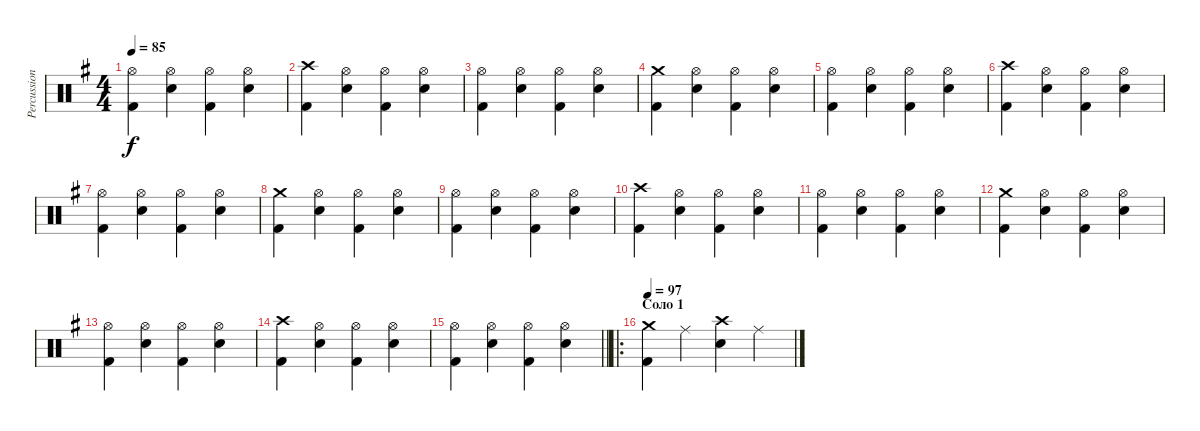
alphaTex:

\track ("Percussion" "Percussion") {instrument percussion}
\staff {score}
\articulation defaults
\ts (4 4)
\tempo 85
\clef neutral
\ks eminor
("Hi-Hat (open)" "Kick (hit) 2").4{dy f} ("Hi-Hat (open)" "Snare (hit) 2").4 ("Hi-Hat (open)" "Kick (hit) 2").4 ("Hi-Hat (open)" "Snare (hit) 2").4 |
("Crash high (hit)" "Kick (hit) 2").4 ("Hi-Hat (open)" "Snare (hit) 2").4 ("Hi-Hat (open)" "Kick (hit) 2").4 ("Hi-Hat (open)" "Snare (hit) 2").4 |
("Hi-Hat (open)" "Kick (hit) 2").4 ("Hi-Hat (open)" "Snare (hit) 2").4 ("Hi-Hat (open)" "Kick (hit) 2").4 ("Hi-Hat (open)" "Snare (hit) 2").4 |
("Crash medium (hit)" "Kick (hit) 2").4 ("Hi-Hat (open)" "Snare (hit) 2").4 ("Hi-Hat (open)" "Kick (hit) 2").4 ("Hi-Hat (open)" "Snare (hit) 2").4 |
("Hi-Hat (open)" "Kick (hit) 2").4 ("Hi-Hat (open)" "Snare (hit) 2").4 ("Hi-Hat (open)" "Kick (hit) 2").4 ("Hi-Hat (open)" "Snare (hit) 2").4 |
("Crash high (hit)" "Kick (hit) 2").4 ("Hi-Hat (open)" "Snare (hit) 2").4 ("Hi-Hat (open)" "Kick (hit) 2").4 ("Hi-Hat (open)" "Snare (hit) 2").4 |
("Hi-Hat (open)" "Kick (hit) 2").4 ("Hi-Hat (open)" "Snare (hit) 2").4 ("Hi-Hat (open)" "Kick (hit) 2").4 ("Hi-Hat (open)" "Snare (hit) 2").4 |
("Crash medium (hit)" "Kick (hit) 2").4 ("Hi-Hat (open)" "Snare (hit) 2").4 ("Hi-Hat (open)" "Kick (hit) 2").4 ("Hi-Hat (open)" "Snare (hit) 2").4 |
("Hi-Hat (open)" "Kick (hit) 2").4 ("Hi-Hat (open)" "Snare (hit) 2").4 ("Hi-Hat (open)" "Kick (hit) 2").4 ("Hi-Hat (open)" "Snare (hit) 2").4 |
("Crash high (hit)" "Kick (hit) 2").4 ("Hi-Hat (open)" "Snare (hit) 2").4 ("Hi-Hat (open)" "Kick (hit) 2").4 ("Hi-Hat (open)" "Snare (hit) 2").4 |
("Hi-Hat (open)" "Kick (hit) 2").4 ("Hi-Hat (open)" "Snare (hit) 2").4 ("Hi-Hat (open)" "Kick (hit) 2").4 ("Hi-Hat (open)" "Snare (hit) 2").4 |
("Crash medium (hit)" "Kick (hit) 2").4 ("Hi-Hat (open)" "Snare (hit) 2").4 ("Hi-Hat (open)" "Kick (hit) 2").4 ("Hi-Hat (open)" "Snare (hit) 2").4 |
("Hi-Hat (open)" "Kick (hit) 2").4 ("Hi-Hat (open)" "Snare (hit) 2").4 ("Hi-Hat (open)" "Kick (hit) 2").4 ("Hi-Hat (open)" "Snare (hit) 2").4 |
("Crash high (hit)" "Kick (hit) 2").4 ("Hi-Hat (open)" "Snare (hit) 2").4 ("Hi-Hat (open)" "Kick (hit) 2").4 ("Hi-Hat (open)" "Snare (hit) 2").4 |
\barLineRight lightlight
("Hi-Hat (open)" "Kick (hit) 2").4 ("Hi-Hat (open)" "Snare (hit) 2").4 ("Hi-Hat (open)" "Kick (hit) 2").4 ("Hi-Hat (open)" "Snare (hit) 2").4 |
\ro
\section ("" "Соло 1")
\tempo 97
("Crash medium (hit)" "Kick (hit) 2").4 "Ride (middle)".4 ("Crash high (hit)" "Snare (hit) 2").4 "Ride (middle)".4
